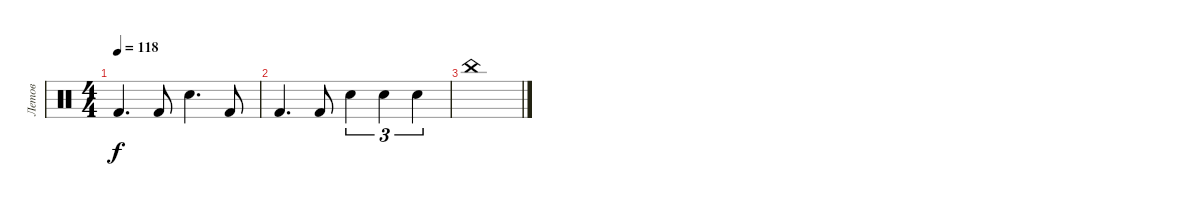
\track ("Летов" "Летов") {instrument percussion}
\staff {score}
\articulation defaults
\ts (4 4)
\tempo 118
\clef neutral
\ks c "Kick (hit) 2".4{d dy f} "Kick (hit) 2".8 "Electric Snare (hit)".4{d} "Kick (hit) 2".8
|
"Kick (hit) 2".4{d} "Kick (hit) 2".8 "Electric Snare (hit)".4{tu (3 2)} "Electric Snare (hit)".4{tu (3 2)} "Electric Snare (hit)".4{tu (3 2)} |
"China (hit)".1
